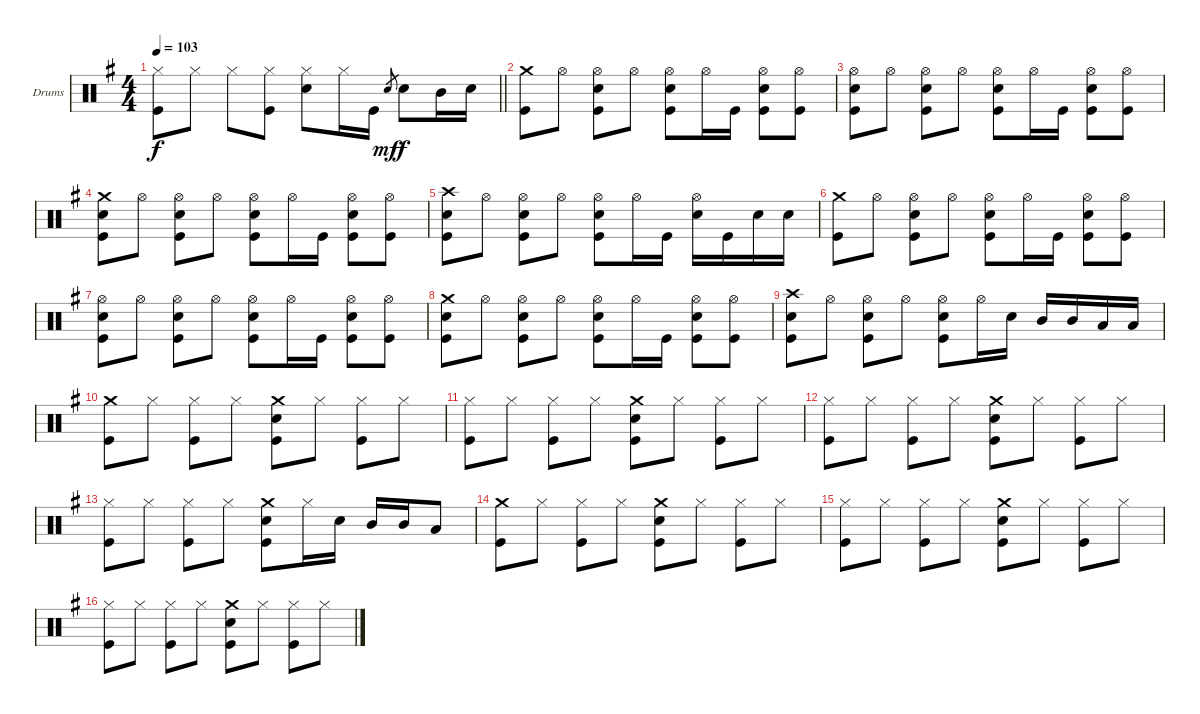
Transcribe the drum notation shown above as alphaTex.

\bracketExtendMode groupsimilarinstruments
\firstSystemTrackNameOrientation horizontal
\otherSystemsTrackNameOrientation horizontal
\track ("Drumkit" "Drums") {instrument percussion}
\staff {score}
\articulation defaults
\ts (4 4)
\tempo 103
\clef neutral
\barLineRight lightlight
\ks eminor
("Hi-Hat (closed)" "Kick (hit)").8{dy f} "Hi-Hat (closed)".8 "Hi-Hat (closed)".8 ("Hi-Hat (closed)" "Kick (hit)").8 ("Hi-Hat (closed)" "Snare (hit) 2").8 "Hi-Hat (closed)".16 "Kick (hit)".16 "Snare (hit) 2".8{gr dy mf} "Snare (hit) 2".8{dy f} "Mid Tom (hit)".16 "Snare (hit) 2".16 |
("Crash medium (hit)" "Kick (hit)").8 "Hi-Hat (open)".8 ("Hi-Hat (open)" "Snare (hit) 2" "Kick (hit)").8 "Hi-Hat (open)".8 ("Hi-Hat (open)" "Snare (hit) 2" "Kick (hit)").8 "Hi-Hat (open)".16 "Kick (hit)".16 ("Hi-Hat (open)" "Snare (hit) 2" "Kick (hit)").8 ("Hi-Hat (open)" "Kick (hit)").8 |
("Hi-Hat (open)" "Snare (hit) 2" "Kick (hit)").8 "Hi-Hat (open)".8 ("Hi-Hat (open)" "Snare (hit) 2" "Kick (hit)").8 "Hi-Hat (open)".8 ("Hi-Hat (open)" "Snare (hit) 2" "Kick (hit)").8 "Hi-Hat (open)".16 "Kick (hit)".16 ("Hi-Hat (open)" "Snare (hit) 2" "Kick (hit)").8 ("Hi-Hat (open)" "Kick (hit)").8 |
("Crash medium (hit)" "Snare (hit) 2" "Kick (hit)").8 "Hi-Hat (open)".8 ("Hi-Hat (open)" "Snare (hit) 2" "Kick (hit)").8 "Hi-Hat (open)".8 ("Hi-Hat (open)" "Snare (hit) 2" "Kick (hit)").8 "Hi-Hat (open)".16 "Kick (hit)".16 ("Hi-Hat (open)" "Snare (hit) 2" "Kick (hit)").8 ("Hi-Hat (open)" "Kick (hit)").8 |
("Crash high (hit)" "Snare (hit) 2" "Kick (hit)").8 "Hi-Hat (open)".8 ("Hi-Hat (open)" "Snare (hit) 2" "Kick (hit)").8 "Hi-Hat (open)".8 ("Hi-Hat (open)" "Snare (hit) 2" "Kick (hit)").8 "Hi-Hat (open)".16 "Kick (hit)".16 ("Hi-Hat (open)" "Snare (hit) 2").16 "Kick (hit)".16 "Snare (hit) 2".16 "Snare (hit) 2".16 |
("Crash medium (hit)" "Kick (hit)").8 "Hi-Hat (open)".8 ("Hi-Hat (open)" "Snare (hit) 2" "Kick (hit)").8 "Hi-Hat (open)".8 ("Hi-Hat (open)" "Snare (hit) 2" "Kick (hit)").8 "Hi-Hat (open)".16 "Kick (hit)".16 ("Hi-Hat (open)" "Snare (hit) 2" "Kick (hit)").8 ("Hi-Hat (open)" "Kick (hit)").8 |
("Hi-Hat (open)" "Snare (hit) 2" "Kick (hit)").8 "Hi-Hat (open)".8 ("Hi-Hat (open)" "Snare (hit) 2" "Kick (hit)").8 "Hi-Hat (open)".8 ("Hi-Hat (open)" "Snare (hit) 2" "Kick (hit)").8 "Hi-Hat (open)".16 "Kick (hit)".16 ("Hi-Hat (open)" "Snare (hit) 2" "Kick (hit)").8 ("Hi-Hat (open)" "Kick (hit)").8 |
("Crash medium (hit)" "Snare (hit) 2" "Kick (hit)").8 "Hi-Hat (open)".8 ("Hi-Hat (open)" "Snare (hit) 2" "Kick (hit)").8 "Hi-Hat (open)".8 ("Hi-Hat (open)" "Snare (hit) 2" "Kick (hit)").8 "Hi-Hat (open)".16 "Kick (hit)".16 ("Hi-Hat (open)" "Snare (hit) 2" "Kick (hit)").8 ("Hi-Hat (open)" "Kick (hit)").8 |
("Crash high (hit)" "Snare (hit) 2" "Kick (hit)").8 "Hi-Hat (open)".8 ("Hi-Hat (open)" "Snare (hit) 2" "Kick (hit)").8 "Hi-Hat (open)".8 ("Hi-Hat (open)" "Snare (hit) 2" "Kick (hit)").8 "Hi-Hat (open)".16 "Snare (hit) 2".16 "Mid Tom (hit)".16 "Mid Tom (hit)".16 "Low Tom (hit)".16 "Low Tom (hit)".16 |
("Crash medium (hit)" "Kick (hit)").8 "Hi-Hat (closed)".8 ("Hi-Hat (closed)" "Kick (hit)").8 "Hi-Hat (closed)".8 ("Crash medium (hit)" "Snare (hit) 2" "Kick (hit)").8 "Hi-Hat (closed)".8 ("Hi-Hat (closed)" "Kick (hit)").8 "Hi-Hat (closed)".8 |
("Hi-Hat (closed)" "Kick (hit)").8 "Hi-Hat (closed)".8 ("Hi-Hat (closed)" "Kick (hit)").8 "Hi-Hat (closed)".8 ("Crash medium (hit)" "Snare (hit) 2" "Kick (hit)").8 "Hi-Hat (closed)".8 ("Hi-Hat (closed)" "Kick (hit)").8 "Hi-Hat (closed)".8 |
("Hi-Hat (closed)" "Kick (hit)").8 "Hi-Hat (closed)".8 ("Hi-Hat (closed)" "Kick (hit)").8 "Hi-Hat (closed)".8 ("Crash medium (hit)" "Snare (hit) 2" "Kick (hit)").8 "Hi-Hat (closed)".8 ("Hi-Hat (closed)" "Kick (hit)").8 "Hi-Hat (closed)".8 |
("Hi-Hat (closed)" "Kick (hit)").8 "Hi-Hat (closed)".8 ("Hi-Hat (closed)" "Kick (hit)").8 "Hi-Hat (closed)".8 ("Crash medium (hit)" "Snare (hit) 2" "Kick (hit)").8 "Hi-Hat (closed)".16 "Snare (hit) 2".16 "Mid Tom (hit)".16 "Mid Tom (hit)".16 "Low Tom (hit)".8 |
("Crash medium (hit)" "Kick (hit)").8 "Hi-Hat (closed)".8 ("Hi-Hat (closed)" "Kick (hit)").8 "Hi-Hat (closed)".8 ("Crash medium (hit)" "Snare (hit) 2" "Kick (hit)").8 "Hi-Hat (closed)".8 ("Hi-Hat (closed)" "Kick (hit)").8 "Hi-Hat (closed)".8 |
("Hi-Hat (closed)" "Kick (hit)").8 "Hi-Hat (closed)".8 ("Hi-Hat (closed)" "Kick (hit)").8 "Hi-Hat (closed)".8 ("Crash medium (hit)" "Snare (hit) 2" "Kick (hit)").8 "Hi-Hat (closed)".8 ("Hi-Hat (closed)" "Kick (hit)").8 "Hi-Hat (closed)".8 |
("Hi-Hat (closed)" "Kick (hit)").8 "Hi-Hat (closed)".8 ("Hi-Hat (closed)" "Kick (hit)").8 "Hi-Hat (closed)".8 ("Crash medium (hit)" "Snare (hit) 2" "Kick (hit)").8 "Hi-Hat (closed)".8 ("Hi-Hat (closed)" "Kick (hit)").8 "Hi-Hat (closed)".8
